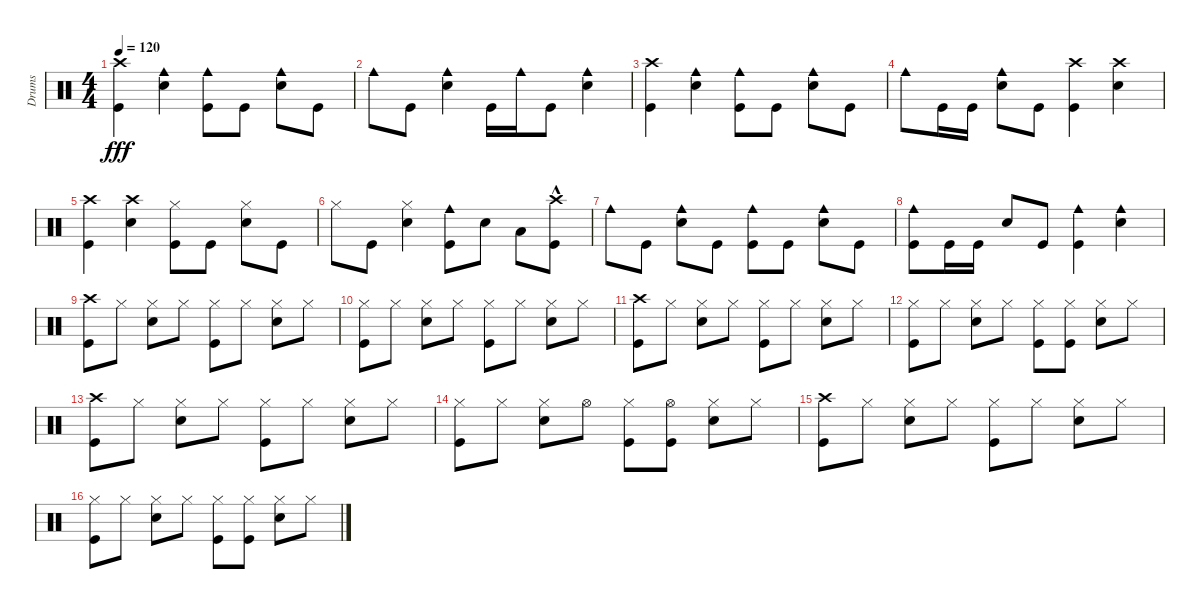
\track ("Drums" "Drums") {instrument percussion}
\staff {score}
\articulation defaults
\ts (4 4)
\tempo 120
\clef neutral
\ks c
("Crash high (hit)" "Kick (hit)").4{dy fff} ("Snare (hit) 2" "Cowbell medium (hit)").4 ("Kick (hit)" "Cowbell medium (hit)").8 "Kick (hit)".8 ("Snare (hit) 2" "Cowbell medium (hit)").8 "Kick (hit)".8 |
"Cowbell medium (hit)".8 "Kick (hit)".8 ("Snare (hit) 2" "Cowbell medium (hit)").4 "Kick (hit)".16 "Cowbell medium (hit)".16 "Kick (hit)".8 ("Snare (hit) 2" "Cowbell medium (hit)").4 |
("Crash high (hit)" "Kick (hit)").4 ("Cowbell medium (hit)" "Snare (hit) 2").4 ("Cowbell medium (hit)" "Kick (hit)").8 "Kick (hit)".8 ("Cowbell medium (hit)" "Snare (hit) 2").8 "Kick (hit)".8 |
"Cowbell medium (hit)".8 "Kick (hit)".16 "Kick (hit)".16 ("Cowbell medium (hit)" "Snare (hit) 2").8 "Kick (hit)".8 ("Crash high (hit)" "Kick (hit)").4 ("Crash high (hit)" "Snare (hit) 2").4 |
("Crash high (hit)" "Kick (hit)").4 ("Crash high (hit)" "Snare (hit) 2").4 ("Hi-Hat (closed)" "Kick (hit)").8 "Kick (hit)".8 ("Hi-Hat (closed)" "Snare (hit) 2").8 "Kick (hit)".8 |
"Hi-Hat (closed)".8 "Kick (hit)".8 ("Snare (hit) 2" "Hi-Hat (closed)").4 ("Kick (hit)" "Cowbell medium (hit)").8 "Snare (hit) 2".8 "Low Floor Tom (hit)".8 ("Kick (hit)" "Crash high (hit)"{hac}).8 |
"Cowbell medium (hit)".8 "Kick (hit)".8 ("Snare (hit) 2" "Cowbell medium (hit)").8 "Kick (hit)".8 ("Kick (hit)" "Cowbell medium (hit)").8 "Kick (hit)".8 ("Snare (hit) 2" "Cowbell medium (hit)").8 "Kick (hit)".8 |
("Kick (hit)" "Cowbell medium (hit)").8 "Kick (hit)".16 "Kick (hit)".16 "Snare (hit) 2".8 "Kick (hit)".8 ("Kick (hit)" "Cowbell medium (hit)").4 ("Snare (hit) 2" "Cowbell medium (hit)").4 |
("Crash high (hit)" "Kick (hit)").8 "Hi-Hat (closed)".8 ("Snare (hit) 2" "Hi-Hat (closed)").8 "Hi-Hat (closed)".8 ("Kick (hit)" "Hi-Hat (closed)").8 "Hi-Hat (closed)".8 ("Snare (hit) 2" "Hi-Hat (closed)").8 "Hi-Hat (closed)".8 |
("Hi-Hat (closed)" "Kick (hit)").8 "Hi-Hat (closed)".8 ("Hi-Hat (closed)" "Snare (hit) 2").8 "Hi-Hat (closed)".8 ("Hi-Hat (closed)" "Kick (hit)").8 "Hi-Hat (closed)".8 ("Hi-Hat (closed)" "Snare (hit) 2").8 "Hi-Hat (closed)".8 |
("Crash high (hit)" "Kick (hit)").8 "Hi-Hat (closed)".8 ("Hi-Hat (closed)" "Snare (hit) 2").8 "Hi-Hat (closed)".8 ("Hi-Hat (closed)" "Kick (hit)").8 "Hi-Hat (closed)".8 ("Hi-Hat (closed)" "Snare (hit) 2").8 "Hi-Hat (closed)".8 |
("Hi-Hat (closed)" "Kick (hit)").8 "Hi-Hat (closed)".8 ("Hi-Hat (closed)" "Snare (hit) 2").8 "Hi-Hat (closed)".8 ("Hi-Hat (closed)" "Kick (hit)").8 ("Hi-Hat (closed)" "Kick (hit)").8 ("Hi-Hat (closed)" "Snare (hit) 2").8 "Hi-Hat (closed)".8 |
("Crash high (hit)" "Kick (hit)").8 "Hi-Hat (closed)".8 ("Hi-Hat (closed)" "Snare (hit) 2").8 "Hi-Hat (closed)".8 ("Hi-Hat (closed)" "Kick (hit)").8 "Hi-Hat (closed)".8 ("Hi-Hat (closed)" "Snare (hit) 2").8 "Hi-Hat (closed)".8 |
("Hi-Hat (closed)" "Kick (hit)").8 "Hi-Hat (closed)".8 ("Hi-Hat (closed)" "Snare (hit) 2").8 "Hi-Hat (open)".8 ("Hi-Hat (closed)" "Kick (hit)").8 ("Kick (hit)" "Hi-Hat (open)").8 ("Hi-Hat (closed)" "Snare (hit) 2").8 "Hi-Hat (closed)".8 |
("Crash high (hit)" "Kick (hit)").8 "Hi-Hat (closed)".8 ("Hi-Hat (closed)" "Snare (hit) 2").8 "Hi-Hat (closed)".8 ("Hi-Hat (closed)" "Kick (hit)").8 "Hi-Hat (closed)".8 ("Hi-Hat (closed)" "Snare (hit) 2").8 "Hi-Hat (closed)".8 |
("Hi-Hat (closed)" "Kick (hit)").8 "Hi-Hat (closed)".8 ("Hi-Hat (closed)" "Snare (hit) 2").8 "Hi-Hat (closed)".8 ("Hi-Hat (closed)" "Kick (hit)").8 ("Hi-Hat (closed)" "Kick (hit)").8 ("Hi-Hat (closed)" "Snare (hit) 2").8 "Hi-Hat (closed)".8
